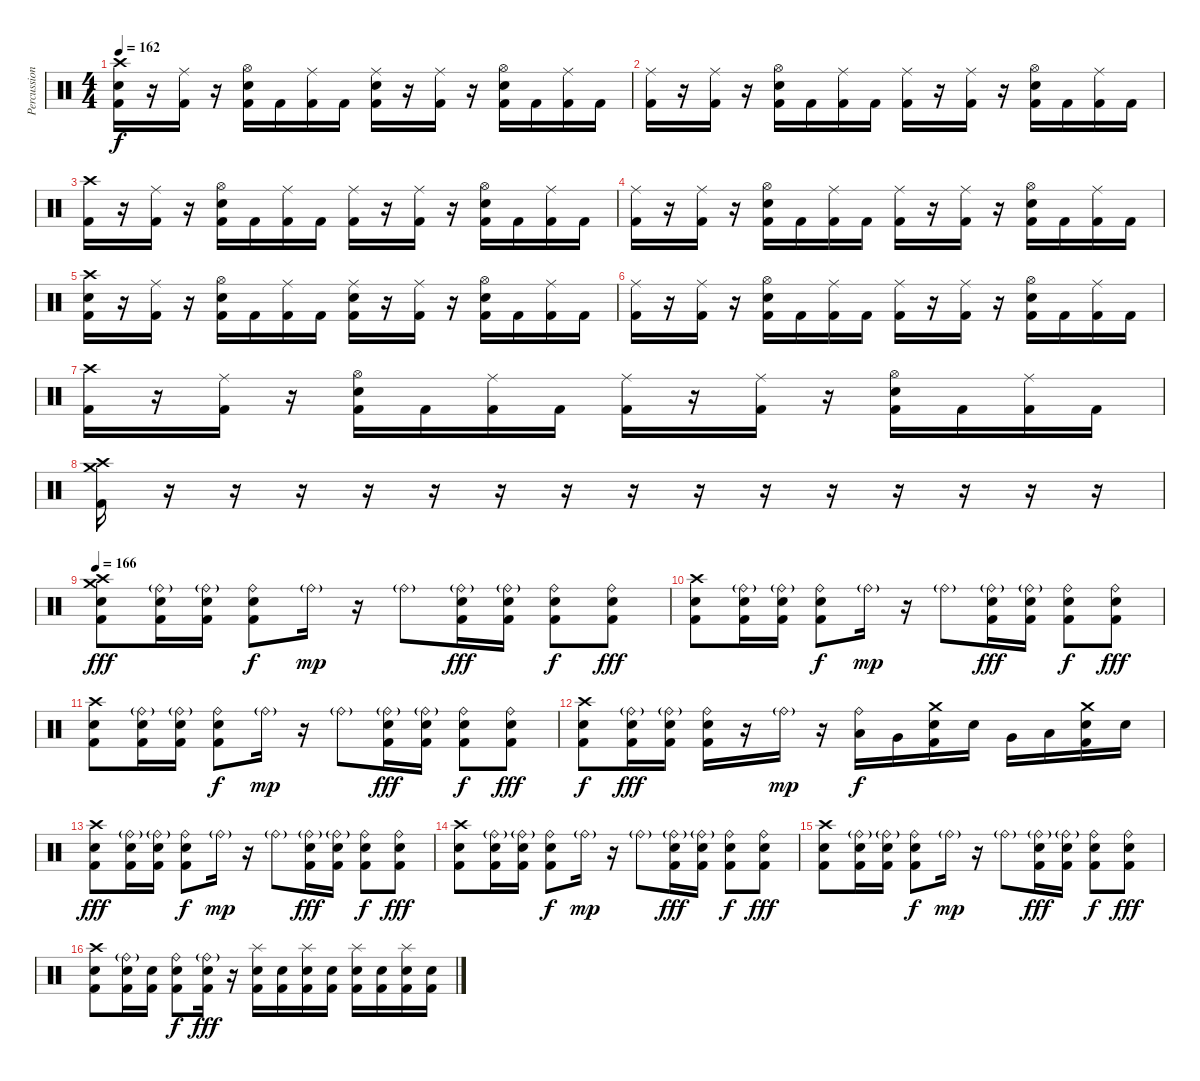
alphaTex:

\track ("Percussion" "Percussion") {instrument percussion}
\staff {score}
\articulation defaults
\ts (4 4)
\tempo 162
\clef neutral
\ks c
("Crash high (hit)" "Electric Snare (hit)" "Kick (hit) 2").16{dy f} r.16 ("Ride (middle)" "Kick (hit) 2").16 r.16 ("Hi-Hat (open)" "Electric Snare (hit)" "Kick (hit) 2").16 "Kick (hit) 2".16 ("Ride (middle)" "Kick (hit) 2").16 "Kick (hit) 2".16 ("Ride (middle)" "Electric Snare (hit)" "Kick (hit) 2").16 r.16 ("Ride (middle)" "Kick (hit) 2").16 r.16 ("Hi-Hat (open)" "Electric Snare (hit)" "Kick (hit) 2").16 "Kick (hit) 2".16 ("Ride (middle)" "Kick (hit) 2").16 "Kick (hit) 2".16 |
("Ride (middle)" "Kick (hit) 2").16 r.16 ("Ride (middle)" "Kick (hit) 2").16 r.16 ("Hi-Hat (open)" "Electric Snare (hit)" "Kick (hit) 2").16 "Kick (hit) 2".16 ("Ride (middle)" "Kick (hit) 2").16 "Kick (hit) 2".16 ("Ride (middle)" "Kick (hit) 2").16 r.16 ("Ride (middle)" "Kick (hit) 2").16 r.16 ("Hi-Hat (open)" "Electric Snare (hit)" "Kick (hit) 2").16 "Kick (hit) 2".16 ("Ride (middle)" "Kick (hit) 2").16 "Kick (hit) 2".16 |
("Crash high (hit)" "Kick (hit) 2").16 r.16 ("Ride (middle)" "Kick (hit) 2").16 r.16 ("Hi-Hat (open)" "Electric Snare (hit)" "Kick (hit) 2").16 "Kick (hit) 2".16 ("Ride (middle)" "Kick (hit) 2").16 "Kick (hit) 2".16 ("Ride (middle)" "Kick (hit) 2").16 r.16 ("Ride (middle)" "Kick (hit) 2").16 r.16 ("Hi-Hat (open)" "Electric Snare (hit)" "Kick (hit) 2").16 "Kick (hit) 2".16 ("Ride (middle)" "Kick (hit) 2").16 "Kick (hit) 2".16 |
("Ride (middle)" "Kick (hit) 2").16 r.16 ("Ride (middle)" "Kick (hit) 2").16 r.16 ("Hi-Hat (open)" "Electric Snare (hit)" "Kick (hit) 2").16 "Kick (hit) 2".16 ("Ride (middle)" "Kick (hit) 2").16 "Kick (hit) 2".16 ("Ride (middle)" "Kick (hit) 2").16 r.16 ("Ride (middle)" "Kick (hit) 2").16 r.16 ("Hi-Hat (open)" "Electric Snare (hit)" "Kick (hit) 2").16 "Kick (hit) 2".16 ("Ride (middle)" "Kick (hit) 2").16 "Kick (hit) 2".16 |
("Crash high (hit)" "Electric Snare (hit)" "Kick (hit) 2").16 r.16 ("Ride (middle)" "Kick (hit) 2").16 r.16 ("Hi-Hat (open)" "Electric Snare (hit)" "Kick (hit) 2").16 "Kick (hit) 2".16 ("Ride (middle)" "Kick (hit) 2").16 "Kick (hit) 2".16 ("Ride (middle)" "Electric Snare (hit)" "Kick (hit) 2").16 r.16 ("Ride (middle)" "Kick (hit) 2").16 r.16 ("Hi-Hat (open)" "Electric Snare (hit)" "Kick (hit) 2").16 "Kick (hit) 2".16 ("Ride (middle)" "Kick (hit) 2").16 "Kick (hit) 2".16 |
("Ride (middle)" "Kick (hit) 2").16 r.16 ("Ride (middle)" "Kick (hit) 2").16 r.16 ("Hi-Hat (open)" "Electric Snare (hit)" "Kick (hit) 2").16 "Kick (hit) 2".16 ("Ride (middle)" "Kick (hit) 2").16 "Kick (hit) 2".16 ("Ride (middle)" "Kick (hit) 2").16 r.16 ("Ride (middle)" "Kick (hit) 2").16 r.16 ("Hi-Hat (open)" "Electric Snare (hit)" "Kick (hit) 2").16 "Kick (hit) 2".16 ("Ride (middle)" "Kick (hit) 2").16 "Kick (hit) 2".16 |
("Crash high (hit)" "Kick (hit) 2").16 r.16 ("Ride (middle)" "Kick (hit) 2").16 r.16 ("Hi-Hat (open)" "Electric Snare (hit)" "Kick (hit) 2").16 "Kick (hit) 2".16 ("Ride (middle)" "Kick (hit) 2").16 "Kick (hit) 2".16 ("Ride (middle)" "Kick (hit) 2").16 r.16 ("Ride (middle)" "Kick (hit) 2").16 r.16 ("Hi-Hat (open)" "Electric Snare (hit)" "Kick (hit) 2").16 "Kick (hit) 2".16 ("Ride (middle)" "Kick (hit) 2").16 "Kick (hit) 2".16 |
("Crash medium (hit)" "Crash high (hit)" "Kick (hit) 2").16 r.16 r.16 r.16 r.16 r.16 r.16 r.16 r.16 r.16 r.16 r.16 r.16 r.16 r.16 r.16 |
\tempo 166
("Crash high (hit)" "Crash medium (hit)" "Electric Snare (hit)" "Kick (hit) 2").8{dy fff} ("Ride (bell)"{g} "Electric Snare (hit)" "Kick (hit) 2").16 ("Ride (bell)"{g} "Electric Snare (hit)" "Kick (hit) 2").16 ("Ride (bell)" "Electric Snare (hit)" "Kick (hit) 2").8{dy f} "Ride (bell)"{g}.16{dy mp} r.16 "Ride (bell)"{g}.8 ("Ride (bell)"{g} "Electric Snare (hit)" "Kick (hit) 2").16{dy fff} ("Ride (bell)"{g} "Electric Snare (hit)" "Kick (hit) 2").16 ("Ride (bell)" "Electric Snare (hit)" "Kick (hit) 2").8{dy f} ("Ride (bell)" "Electric Snare (hit)" "Kick (hit) 2").8{dy fff} |
("Crash high (hit)" "Electric Snare (hit)" "Kick (hit) 2").8 ("Ride (bell)"{g} "Electric Snare (hit)" "Kick (hit) 2").16 ("Ride (bell)"{g} "Electric Snare (hit)" "Kick (hit) 2").16 ("Ride (bell)" "Electric Snare (hit)" "Kick (hit) 2").8{dy f} "Ride (bell)"{g}.16{dy mp} r.16 "Ride (bell)"{g}.8 ("Ride (bell)"{g} "Electric Snare (hit)" "Kick (hit) 2").16{dy fff} ("Ride (bell)"{g} "Electric Snare (hit)" "Kick (hit) 2").16 ("Ride (bell)" "Electric Snare (hit)" "Kick (hit) 2").8{dy f} ("Ride (bell)" "Electric Snare (hit)" "Kick (hit) 2").8{dy fff} |
("Crash high (hit)" "Electric Snare (hit)" "Kick (hit) 2").8 ("Ride (bell)"{g} "Electric Snare (hit)" "Kick (hit) 2").16 ("Ride (bell)"{g} "Electric Snare (hit)" "Kick (hit) 2").16 ("Ride (bell)" "Electric Snare (hit)" "Kick (hit) 2").8{dy f} "Ride (bell)"{g}.16{dy mp} r.16 "Ride (bell)"{g}.8 ("Ride (bell)"{g} "Electric Snare (hit)" "Kick (hit) 2").16{dy fff} ("Ride (bell)"{g} "Electric Snare (hit)" "Kick (hit) 2").16 ("Ride (bell)" "Electric Snare (hit)" "Kick (hit) 2").8{dy f} ("Ride (bell)" "Electric Snare (hit)" "Kick (hit) 2").8{dy fff} |
("Crash high (hit)" "Electric Snare (hit)" "Kick (hit) 2").8{dy f} ("Ride (bell)"{g} "Electric Snare (hit)" "Kick (hit) 2").16{dy fff} ("Ride (bell)"{g} "Electric Snare (hit)" "Kick (hit) 2").16 ("Ride (bell)" "Electric Snare (hit)" "Kick (hit) 2").16 r.16 "Ride (bell)"{g}.16{dy mp} r.16 ("Ride (bell)" "Low Tom (hit)").16{dy f} "Very Low Tom (hit)".16 ("Crash medium (hit)" "Electric Snare (hit)" "Kick (hit) 2").16 "Electric Snare (hit)".16 "Very Low Tom (hit)".16 "Low Floor Tom (hit)".16 ("Crash medium (hit)" "Electric Snare (hit)" "Kick (hit) 2").16 "Electric Snare (hit)".16 |
("Crash high (hit)" "Electric Snare (hit)" "Kick (hit) 2").8{dy fff} ("Ride (bell)"{g} "Electric Snare (hit)" "Kick (hit) 2").16 ("Ride (bell)"{g} "Electric Snare (hit)" "Kick (hit) 2").16 ("Ride (bell)" "Electric Snare (hit)" "Kick (hit) 2").8{dy f} "Ride (bell)"{g}.16{dy mp} r.16 "Ride (bell)"{g}.8 ("Ride (bell)"{g} "Electric Snare (hit)" "Kick (hit) 2").16{dy fff} ("Ride (bell)"{g} "Electric Snare (hit)" "Kick (hit) 2").16 ("Ride (bell)" "Electric Snare (hit)" "Kick (hit) 2").8{dy f} ("Ride (bell)" "Electric Snare (hit)" "Kick (hit) 2").8{dy fff} |
("Crash high (hit)" "Electric Snare (hit)" "Kick (hit) 2").8 ("Ride (bell)"{g} "Electric Snare (hit)" "Kick (hit) 2").16 ("Ride (bell)"{g} "Electric Snare (hit)" "Kick (hit) 2").16 ("Ride (bell)" "Electric Snare (hit)" "Kick (hit) 2").8{dy f} "Ride (bell)"{g}.16{dy mp} r.16 "Ride (bell)"{g}.8 ("Ride (bell)"{g} "Electric Snare (hit)" "Kick (hit) 2").16{dy fff} ("Ride (bell)"{g} "Electric Snare (hit)" "Kick (hit) 2").16 ("Ride (bell)" "Electric Snare (hit)" "Kick (hit) 2").8{dy f} ("Ride (bell)" "Electric Snare (hit)" "Kick (hit) 2").8{dy fff} |
("Crash high (hit)" "Electric Snare (hit)" "Kick (hit) 2").8 ("Ride (bell)"{g} "Electric Snare (hit)" "Kick (hit) 2").16 ("Ride (bell)"{g} "Electric Snare (hit)" "Kick (hit) 2").16 ("Ride (bell)" "Electric Snare (hit)" "Kick (hit) 2").8{dy f} "Ride (bell)"{g}.16{dy mp} r.16 "Ride (bell)"{g}.8 ("Ride (bell)"{g} "Electric Snare (hit)" "Kick (hit) 2").16{dy fff} ("Ride (bell)"{g} "Electric Snare (hit)" "Kick (hit) 2").16 ("Ride (bell)" "Electric Snare (hit)" "Kick (hit) 2").8{dy f} ("Ride (bell)" "Electric Snare (hit)" "Kick (hit) 2").8{dy fff} |
("Crash high (hit)" "Electric Snare (hit)" "Kick (hit) 2").8 ("Ride (bell)"{g} "Electric Snare (hit)" "Kick (hit) 2").16 ("Electric Snare (hit)" "Kick (hit) 2").16 ("Ride (bell)" "Electric Snare (hit)" "Kick (hit) 2").8{dy f} ("Ride (bell)"{g} "Electric Snare (hit)" "Kick (hit) 2").16{dy fff} r.16 ("Splash (hit)" "Electric Snare (hit)" "Kick (hit) 2").16 ("Electric Snare (hit)" "Kick (hit) 2").16 ("Splash (hit)" "Electric Snare (hit)" "Kick (hit) 2").16 ("Electric Snare (hit)" "Kick (hit) 2").16 ("Splash (hit)" "Electric Snare (hit)" "Kick (hit) 2").16 ("Electric Snare (hit)" "Kick (hit) 2").16 ("Splash (hit)" "Electric Snare (hit)" "Kick (hit) 2").16 ("Electric Snare (hit)" "Kick (hit) 2").16
